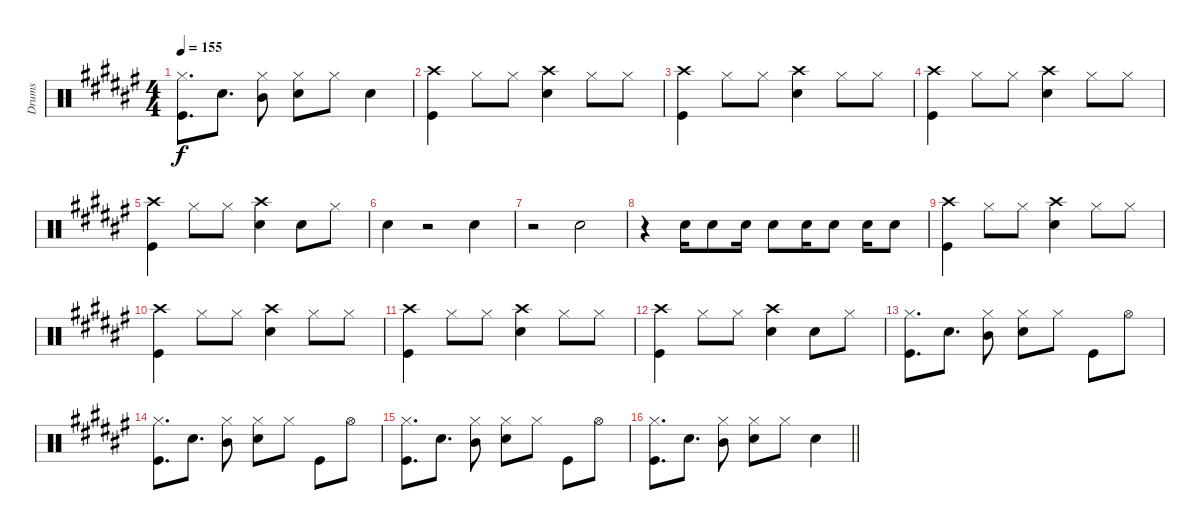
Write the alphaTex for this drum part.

\track ("Drums" "Drums") {instrument percussion}
\staff {score}
\articulation defaults
\ts (4 4)
\tempo 155
\clef neutral
\ks f#
("Hi-Hat (closed)" "Kick (hit)").8{d dy f} "Snare (hit) 2".8{d} ("Hi-Hat (closed)" "Mid Tom (hit)").8 ("Hi-Hat (closed)" "Snare (hit) 2").8 "Hi-Hat (closed)".8 "Snare (hit) 2".4 |
("Crash high (hit)" "Kick (hit)").4 "Hi-Hat (closed)".8 "Hi-Hat (closed)".8 ("Crash high (hit)" "Snare (hit) 2").4 "Hi-Hat (closed)".8 "Hi-Hat (closed)".8 |
("Crash high (hit)" "Kick (hit)").4 "Hi-Hat (closed)".8 "Hi-Hat (closed)".8 ("Crash high (hit)" "Snare (hit) 2").4 "Hi-Hat (closed)".8 "Hi-Hat (closed)".8 |
("Crash high (hit)" "Kick (hit)").4 "Hi-Hat (closed)".8 "Hi-Hat (closed)".8 ("Crash high (hit)" "Snare (hit) 2").4 "Hi-Hat (closed)".8 "Hi-Hat (closed)".8 |
("Crash high (hit)" "Kick (hit)").4 "Hi-Hat (closed)".8 "Hi-Hat (closed)".8 ("Crash high (hit)" "Snare (hit) 2").4 "Snare (hit) 2".8 "Hi-Hat (closed)".8 |
"Snare (hit) 2".4 r.2 "Snare (hit) 2".4 |
r.2 "Snare (hit) 2".2 |
r.4 "Snare (hit) 2".16 "Snare (hit) 2".8 "Snare (hit) 2".16 "Snare (hit) 2".8 "Snare (hit) 2".16 "Snare (hit) 2".8 "Snare (hit) 2".16 "Snare (hit) 2".8 |
("Crash high (hit)" "Kick (hit)").4 "Hi-Hat (closed)".8 "Hi-Hat (closed)".8 ("Crash high (hit)" "Snare (hit) 2").4 "Hi-Hat (closed)".8 "Hi-Hat (closed)".8 |
("Crash high (hit)" "Kick (hit)").4 "Hi-Hat (closed)".8 "Hi-Hat (closed)".8 ("Crash high (hit)" "Snare (hit) 2").4 "Hi-Hat (closed)".8 "Hi-Hat (closed)".8 |
("Crash high (hit)" "Kick (hit)").4 "Hi-Hat (closed)".8 "Hi-Hat (closed)".8 ("Crash high (hit)" "Snare (hit) 2").4 "Hi-Hat (closed)".8 "Hi-Hat (closed)".8 |
("Crash high (hit)" "Kick (hit)").4 "Hi-Hat (closed)".8 "Hi-Hat (closed)".8 ("Crash high (hit)" "Snare (hit) 2").4 "Snare (hit) 2".8 "Hi-Hat (closed)".8 |
("Hi-Hat (closed)" "Kick (hit)").8{d} "Snare (hit) 2".8{d} ("Hi-Hat (closed)" "Mid Tom (hit)").8 ("Hi-Hat (closed)" "Snare (hit) 2").8 "Hi-Hat (closed)".8 "Kick (hit)".8 "Hi-Hat (open)".8 |
("Hi-Hat (closed)" "Kick (hit)").8{d} "Snare (hit) 2".8{d} ("Hi-Hat (closed)" "Mid Tom (hit)").8 ("Hi-Hat (closed)" "Snare (hit) 2").8 "Hi-Hat (closed)".8 "Kick (hit)".8 "Hi-Hat (open)".8 |
("Hi-Hat (closed)" "Kick (hit)").8{d} "Snare (hit) 2".8{d} ("Hi-Hat (closed)" "Mid Tom (hit)").8 ("Hi-Hat (closed)" "Snare (hit) 2").8 "Hi-Hat (closed)".8 "Kick (hit)".8 "Hi-Hat (open)".8 |
\barLineRight lightlight
("Hi-Hat (closed)" "Kick (hit)").8{d} "Snare (hit) 2".8{d} ("Hi-Hat (closed)" "Mid Tom (hit)").8 ("Hi-Hat (closed)" "Snare (hit) 2").8 "Hi-Hat (closed)".8 "Snare (hit) 2".4
